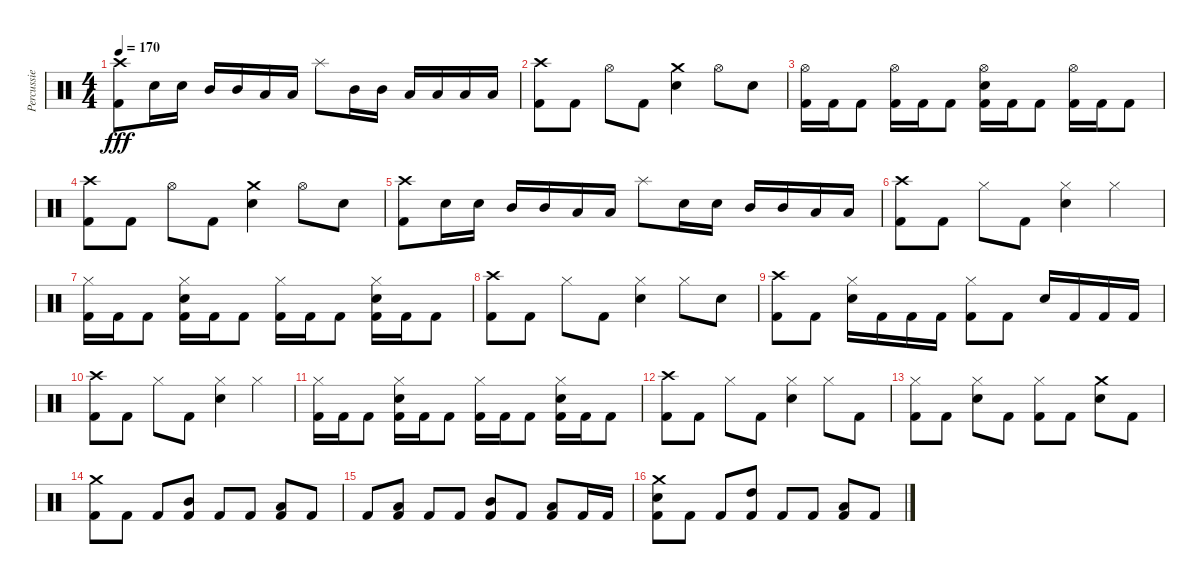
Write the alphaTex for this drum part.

\track ("Percussie" "Percussie") {instrument percussion}
\staff {score}
\articulation defaults
\ts (4 4)
\tempo 170
\clef neutral
\ks c
("Crash high (hit)" "Kick (hit) 2").8{dy fff} "Electric Snare (hit)".16 "Electric Snare (hit)".16 "Mid Tom (hit)".16 "Mid Tom (hit)".16 "Low Tom (hit)".16 "Low Tom (hit)".16 "Splash (hit)".8 "Mid Tom (hit)".16 "Mid Tom (hit)".16 "Low Tom (hit)".16 "Low Tom (hit)".16 "Low Floor Tom (hit)".16 "Low Floor Tom (hit)".16 |
("Crash high (hit)" "Kick (hit) 2").8 "Kick (hit) 2".8 "Hi-Hat (open)".8 "Kick (hit) 2".8 ("Crash medium (hit)" "Electric Snare (hit)").4 "Hi-Hat (open)".8 "Electric Snare (hit)".8 |
("Hi-Hat (open)" "Kick (hit) 2").16 "Kick (hit) 2".16 "Kick (hit) 2".8 ("Hi-Hat (open)" "Kick (hit) 2").16 "Kick (hit) 2".16 "Kick (hit) 2".8 ("Hi-Hat (open)" "Electric Snare (hit)" "Kick (hit) 2").16 "Kick (hit) 2".16 "Kick (hit) 2".8 ("Hi-Hat (open)" "Kick (hit) 2").16 "Kick (hit) 2".16 "Kick (hit) 2".8 |
("Crash high (hit)" "Kick (hit) 2").8 "Kick (hit) 2".8 "Hi-Hat (open)".8 "Kick (hit) 2".8 ("Crash medium (hit)" "Electric Snare (hit)").4 "Hi-Hat (open)".8 "Electric Snare (hit)".8 |
("Crash high (hit)" "Kick (hit) 2").8 "Electric Snare (hit)".16 "Electric Snare (hit)".16 "Mid Tom (hit)".16 "Mid Tom (hit)".16 "Low Tom (hit)".16 "Low Tom (hit)".16 "Splash (hit)".8 "Electric Snare (hit)".16 "Electric Snare (hit)".16 "Mid Tom (hit)".16 "Mid Tom (hit)".16 "Low Floor Tom (hit)".16 "Low Floor Tom (hit)".16 |
("Crash high (hit)" "Kick (hit) 2").8 "Kick (hit) 2".8 "Hi-Hat (closed)".8 "Kick (hit) 2".8 ("Hi-Hat (closed)" "Electric Snare (hit)").4 "Hi-Hat (closed)".4 |
("Hi-Hat (closed)" "Kick (hit) 2").16 "Kick (hit) 2".16 "Kick (hit) 2".8 ("Hi-Hat (closed)" "Electric Snare (hit)" "Kick (hit) 2").16 "Kick (hit) 2".16 "Kick (hit) 2".8 ("Hi-Hat (closed)" "Kick (hit) 2").16 "Kick (hit) 2".16 "Kick (hit) 2".8 ("Hi-Hat (closed)" "Electric Snare (hit)" "Kick (hit) 2").16 "Kick (hit) 2".16 "Kick (hit) 2".8 |
("Crash high (hit)" "Kick (hit) 2").8 "Kick (hit) 2".8 "Hi-Hat (closed)".8 "Kick (hit) 2".8 ("Hi-Hat (closed)" "Electric Snare (hit)").4 "Hi-Hat (closed)".8 "Electric Snare (hit)".8 |
("Crash high (hit)" "Kick (hit) 2").8 "Kick (hit) 2".8 ("Hi-Hat (closed)" "Electric Snare (hit)").16 "Kick (hit) 2".16 "Kick (hit) 2".16 "Kick (hit) 2".16 ("Hi-Hat (closed)" "Kick (hit) 2").8 "Kick (hit) 2".8 "Electric Snare (hit)".16 "Kick (hit) 2".16 "Kick (hit) 2".16 "Kick (hit) 2".16 |
("Crash high (hit)" "Kick (hit) 2").8 "Kick (hit) 2".8 "Hi-Hat (closed)".8 "Kick (hit) 2".8 ("Hi-Hat (closed)" "Electric Snare (hit)").4 "Hi-Hat (closed)".4 |
("Hi-Hat (closed)" "Kick (hit) 2").16 "Kick (hit) 2".16 "Kick (hit) 2".8 ("Hi-Hat (closed)" "Electric Snare (hit)" "Kick (hit) 2").16 "Kick (hit) 2".16 "Kick (hit) 2".8 ("Hi-Hat (closed)" "Kick (hit) 2").16 "Kick (hit) 2".16 "Kick (hit) 2".8 ("Hi-Hat (closed)" "Electric Snare (hit)" "Kick (hit) 2").16 "Kick (hit) 2".16 "Kick (hit) 2".8 |
("Crash high (hit)" "Kick (hit) 2").8 "Kick (hit) 2".8 "Hi-Hat (closed)".8 "Kick (hit) 2".8 ("Hi-Hat (closed)" "Electric Snare (hit)").4 "Hi-Hat (closed)".8 "Kick (hit) 2".8 |
("Hi-Hat (closed)" "Kick (hit) 2").8 "Kick (hit) 2".8 ("Hi-Hat (closed)" "Electric Snare (hit)").8 "Kick (hit) 2".8 ("Hi-Hat (closed)" "Kick (hit) 2").8 "Kick (hit) 2".8 ("Crash medium (hit)" "Electric Snare (hit)").8 "Kick (hit) 2".8 |
("Crash medium (hit)" "Kick (hit) 2").8 "Kick (hit) 2".8 "Kick (hit) 2".8 ("Mid Tom (hit)" "Kick (hit) 2").8 "Kick (hit) 2".8 "Kick (hit) 2".8 ("Low Tom (hit)" "Kick (hit) 2").8 "Kick (hit) 2".8 |
"Kick (hit) 2".8 ("Low Floor Tom (hit)" "Kick (hit) 2").8 "Kick (hit) 2".8 "Kick (hit) 2".8 ("Mid Tom (hit)" "Kick (hit) 2").8 "Kick (hit) 2".8 ("Low Tom (hit)" "Kick (hit) 2").8 "Kick (hit) 2".16 "Kick (hit) 2".16 |
("Crash medium (hit)" "Electric Snare (hit)" "Kick (hit) 2").8 "Kick (hit) 2".8 "Kick (hit) 2".8 ("High Tom (hit)" "Kick (hit) 2").8 "Kick (hit) 2".8 "Kick (hit) 2".8 ("Low Tom (hit)" "Kick (hit) 2").8 "Kick (hit) 2".8
